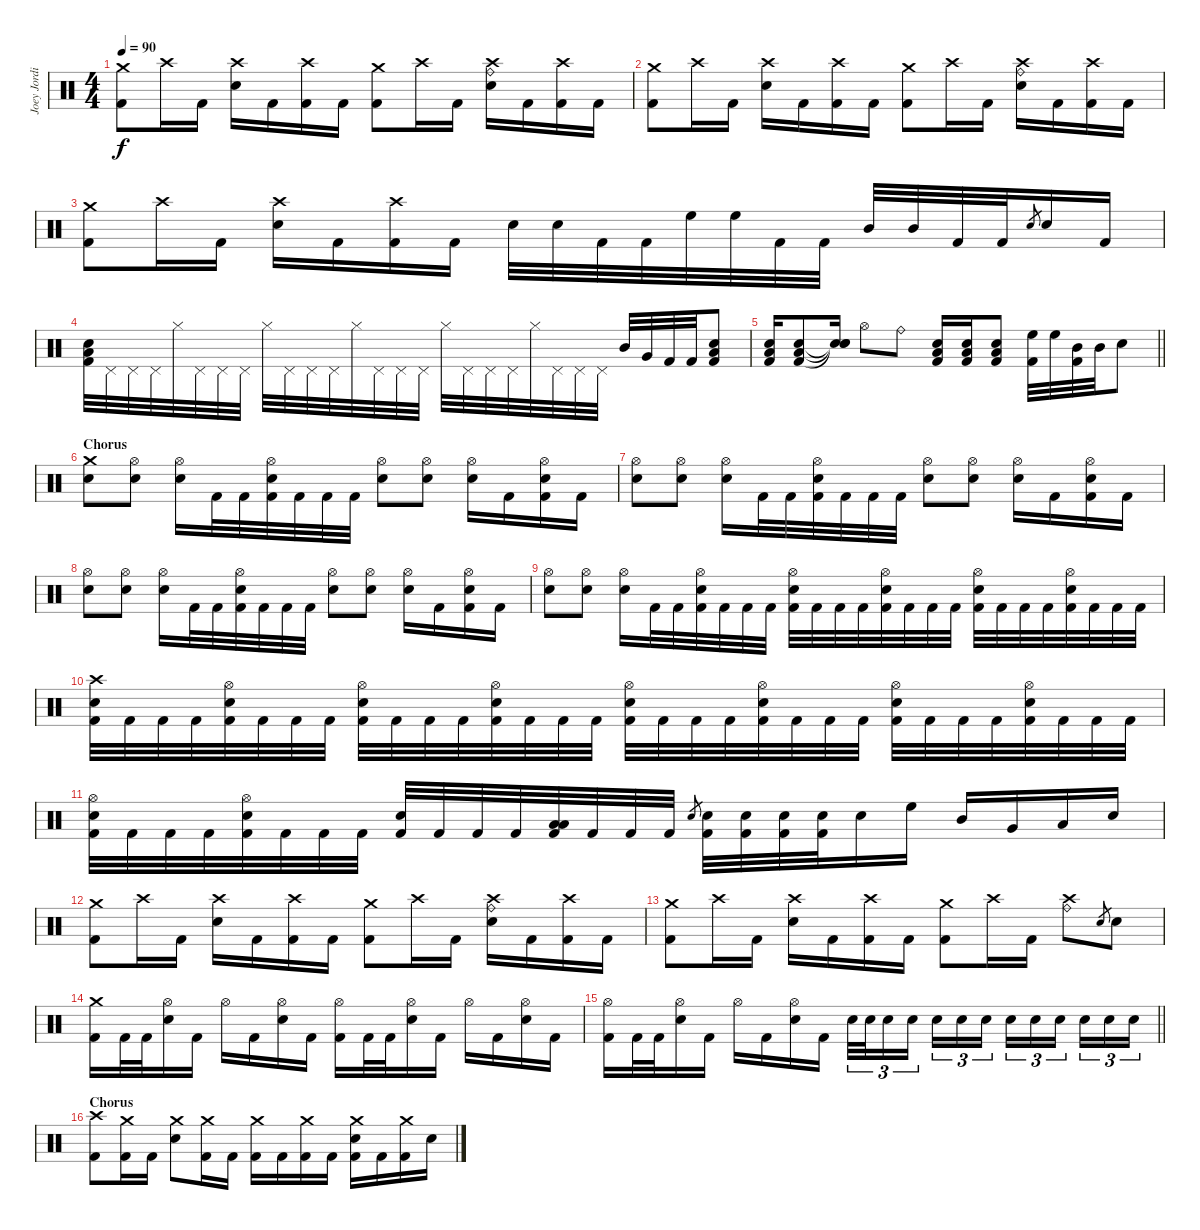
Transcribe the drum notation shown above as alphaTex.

\track ("Joey Jordison" "Joey Jordi") {instrument percussion}
\staff {score}
\articulation defaults
\ts (4 4)
\tempo 90
\clef neutral
\ks c
("Crash medium (hit)" "Kick (hit) 2").8{dy f} "Crash high (hit)".16 "Kick (hit) 2".16 ("Crash high (hit)" "Electric Snare (hit)").16 "Kick (hit) 2".16 ("Crash high (hit)" "Kick (hit) 2").16 "Kick (hit) 2".16 ("Crash medium (hit)" "Kick (hit) 2").8 "Crash high (hit)".16 "Kick (hit) 2".16 ("Crash high (hit)" "Ride (bell)" "Electric Snare (hit)").16 "Kick (hit) 2".16 ("Crash high (hit)" "Kick (hit) 2").16 "Kick (hit) 2".16 |
("Crash medium (hit)" "Kick (hit) 2").8 "Crash high (hit)".16 "Kick (hit) 2".16 ("Crash high (hit)" "Electric Snare (hit)").16 "Kick (hit) 2".16 ("Crash high (hit)" "Kick (hit) 2").16 "Kick (hit) 2".16 ("Crash medium (hit)" "Kick (hit) 2").8 "Crash high (hit)".16 "Kick (hit) 2".16 ("Crash high (hit)" "Ride (bell)" "Electric Snare (hit)").16 "Kick (hit) 2".16 ("Crash high (hit)" "Kick (hit) 2").16 "Kick (hit) 2".16 |
("Crash medium (hit)" "Kick (hit) 2").8 "Crash high (hit)".16 "Kick (hit) 2".16 ("Crash high (hit)" "Electric Snare (hit)").16 "Kick (hit) 2".16 ("Crash high (hit)" "Kick (hit) 2").16 "Kick (hit) 2".16 "Electric Snare (hit)".32 "Electric Snare (hit)".32 "Kick (hit) 2".32 "Kick (hit) 2".32 "High Floor Tom (hit)".32 "High Floor Tom (hit)".32 "Kick (hit) 2".32 "Kick (hit) 2".32 "Mid Tom (hit)".32 "Mid Tom (hit)".32 "Kick (hit) 2".32 "Kick (hit) 2".32 "Electric Snare (hit)".8{gr} "Electric Snare (hit)".16 "Kick (hit) 2".16 |
("Low Floor Tom (hit)" "Electric Snare (hit)" "Kick (hit) 2").32 "Pedal Hi-Hat (hit)".32 "Pedal Hi-Hat (hit)".32 "Pedal Hi-Hat (hit)".32 "Hi-Hat (closed)".32 "Pedal Hi-Hat (hit)".32 "Pedal Hi-Hat (hit)".32 "Pedal Hi-Hat (hit)".32 "Hi-Hat (closed)".32 "Pedal Hi-Hat (hit)".32 "Pedal Hi-Hat (hit)".32 "Pedal Hi-Hat (hit)".32 "Hi-Hat (closed)".32 "Pedal Hi-Hat (hit)".32 "Pedal Hi-Hat (hit)".32 "Pedal Hi-Hat (hit)".32 "Hi-Hat (closed)".32 "Pedal Hi-Hat (hit)".32 "Pedal Hi-Hat (hit)".32 "Pedal Hi-Hat (hit)".32 "Hi-Hat (closed)".32 "Pedal Hi-Hat (hit)".32 "Pedal Hi-Hat (hit)".32 "Pedal Hi-Hat (hit)".32 "Mid Tom (hit)".32 "Very Low Tom (hit)".32 "Kick (hit) 2".32 "Kick (hit) 2".32 ("Low Floor Tom (hit)" "Electric Snare (hit)" "Kick (hit) 2").8 |
\barLineRight lightlight
("Low Floor Tom (hit)" "Electric Snare (hit)" "Kick (hit) 2").16 ("Low Floor Tom (hit)" "Electric Snare (hit)" "Kick (hit) 2").8 ("Snare (hit)"{t} "Snare (hit)"{t} "Snare (hit)"{t}).16 "Hi-Hat (open)".8 "Ride (bell)".8 ("Low Floor Tom (hit)" "Electric Snare (hit)" "Kick (hit) 2").16 ("Low Floor Tom (hit)" "Electric Snare (hit)" "Kick (hit) 2").16 ("Low Floor Tom (hit)" "Electric Snare (hit)" "Kick (hit) 2").8 ("High Floor Tom (hit)" "Kick (hit) 2").32 "High Floor Tom (hit)".32 ("Mid Tom (hit)" "Kick (hit) 2").32 "Mid Tom (hit)".32 "Electric Snare (hit)".8 |
\section ("" "Chorus")
("Crash medium (hit)" "Electric Snare (hit)").8 ("Hi-Hat (open)" "Electric Snare (hit)").8 ("Hi-Hat (open)" "Electric Snare (hit)").16 "Kick (hit) 2".32 "Kick (hit) 2".32 ("Hi-Hat (open)" "Electric Snare (hit)" "Kick (hit) 2").32 "Kick (hit) 2".32 "Kick (hit) 2".32 "Kick (hit) 2".32 ("Hi-Hat (open)" "Electric Snare (hit)").8 ("Hi-Hat (open)" "Electric Snare (hit)").8 ("Hi-Hat (open)" "Electric Snare (hit)").16 "Kick (hit) 2".16 ("Hi-Hat (open)" "Electric Snare (hit)" "Kick (hit) 2").16 "Kick (hit) 2".16 |
("Hi-Hat (open)" "Electric Snare (hit)").8 ("Hi-Hat (open)" "Electric Snare (hit)").8 ("Hi-Hat (open)" "Electric Snare (hit)").16 "Kick (hit) 2".32 "Kick (hit) 2".32 ("Hi-Hat (open)" "Electric Snare (hit)" "Kick (hit) 2").32 "Kick (hit) 2".32 "Kick (hit) 2".32 "Kick (hit) 2".32 ("Hi-Hat (open)" "Electric Snare (hit)").8 ("Hi-Hat (open)" "Electric Snare (hit)").8 ("Hi-Hat (open)" "Electric Snare (hit)").16 "Kick (hit) 2".16 ("Hi-Hat (open)" "Electric Snare (hit)" "Kick (hit) 2").16 "Kick (hit) 2".16 |
("Hi-Hat (open)" "Electric Snare (hit)").8 ("Hi-Hat (open)" "Electric Snare (hit)").8 ("Hi-Hat (open)" "Electric Snare (hit)").16 "Kick (hit) 2".32 "Kick (hit) 2".32 ("Hi-Hat (open)" "Electric Snare (hit)" "Kick (hit) 2").32 "Kick (hit) 2".32 "Kick (hit) 2".32 "Kick (hit) 2".32 ("Hi-Hat (open)" "Electric Snare (hit)").8 ("Hi-Hat (open)" "Electric Snare (hit)").8 ("Hi-Hat (open)" "Electric Snare (hit)").16 "Kick (hit) 2".16 ("Hi-Hat (open)" "Electric Snare (hit)" "Kick (hit) 2").16 "Kick (hit) 2".16 |
("Hi-Hat (open)" "Electric Snare (hit)").8 ("Hi-Hat (open)" "Electric Snare (hit)").8 ("Hi-Hat (open)" "Electric Snare (hit)").16 "Kick (hit) 2".32 "Kick (hit) 2".32 ("Hi-Hat (open)" "Electric Snare (hit)" "Kick (hit) 2").32 "Kick (hit) 2".32 "Kick (hit) 2".32 "Kick (hit) 2".32 ("Hi-Hat (open)" "Electric Snare (hit)" "Kick (hit) 2").32 "Kick (hit) 2".32 "Kick (hit) 2".32 "Kick (hit) 2".32 ("Hi-Hat (open)" "Electric Snare (hit)" "Kick (hit) 2").32 "Kick (hit) 2".32 "Kick (hit) 2".32 "Kick (hit) 2".32 ("Hi-Hat (open)" "Electric Snare (hit)" "Kick (hit) 2").32 "Kick (hit) 2".32 "Kick (hit) 2".32 "Kick (hit) 2".32 ("Hi-Hat (open)" "Electric Snare (hit)" "Kick (hit) 2").32 "Kick (hit) 2".32 "Kick (hit) 2".32 "Kick (hit) 2".32 |
("Crash high (hit)" "Electric Snare (hit)" "Kick (hit) 2").32 "Kick (hit) 2".32 "Kick (hit) 2".32 "Kick (hit) 2".32 ("Hi-Hat (open)" "Electric Snare (hit)" "Kick (hit) 2").32 "Kick (hit) 2".32 "Kick (hit) 2".32 "Kick (hit) 2".32 ("Hi-Hat (open)" "Electric Snare (hit)" "Kick (hit) 2").32 "Kick (hit) 2".32 "Kick (hit) 2".32 "Kick (hit) 2".32 ("Hi-Hat (open)" "Electric Snare (hit)" "Kick (hit) 2").32 "Kick (hit) 2".32 "Kick (hit) 2".32 "Kick (hit) 2".32 ("Hi-Hat (open)" "Electric Snare (hit)" "Kick (hit) 2").32 "Kick (hit) 2".32 "Kick (hit) 2".32 "Kick (hit) 2".32 ("Hi-Hat (open)" "Electric Snare (hit)" "Kick (hit) 2").32 "Kick (hit) 2".32 "Kick (hit) 2".32 "Kick (hit) 2".32 ("Hi-Hat (open)" "Electric Snare (hit)" "Kick (hit) 2").32 "Kick (hit) 2".32 "Kick (hit) 2".32 "Kick (hit) 2".32 ("Hi-Hat (open)" "Electric Snare (hit)" "Kick (hit) 2").32 "Kick (hit) 2".32 "Kick (hit) 2".32 "Kick (hit) 2".32 |
("Hi-Hat (open)" "Electric Snare (hit)" "Kick (hit) 2").32 "Kick (hit) 2".32 "Kick (hit) 2".32 "Kick (hit) 2".32 ("Hi-Hat (open)" "Electric Snare (hit)" "Kick (hit) 2").32 "Kick (hit) 2".32 "Kick (hit) 2".32 "Kick (hit) 2".32 ("Electric Snare (hit)" "Kick (hit) 2").32 "Kick (hit) 2".32 "Kick (hit) 2".32 "Kick (hit) 2".32 ("Low Tom (hit)" "Low Floor Tom (hit)" "Kick (hit) 2").32 "Kick (hit) 2".32 "Kick (hit) 2".32 "Kick (hit) 2".32 "Electric Snare (hit)".8{gr} ("Electric Snare (hit)" "Kick (hit) 2").32 ("Electric Snare (hit)" "Kick (hit) 2").32 ("Electric Snare (hit)" "Kick (hit) 2").32 ("Electric Snare (hit)" "Kick (hit) 2").32 "Electric Snare (hit)".16 "High Floor Tom (hit)".16 "Mid Tom (hit)".16 "Very Low Tom (hit)".16 "Low Floor Tom (hit)".16 "Electric Snare (hit)".16 |
("Crash medium (hit)" "Kick (hit) 2").8 "Crash high (hit)".16 "Kick (hit) 2".16 ("Crash high (hit)" "Electric Snare (hit)").16 "Kick (hit) 2".16 ("Crash high (hit)" "Kick (hit) 2").16 "Kick (hit) 2".16 ("Crash medium (hit)" "Kick (hit) 2").8 "Crash high (hit)".16 "Kick (hit) 2".16 ("Crash high (hit)" "Ride (bell)" "Electric Snare (hit)").16 "Kick (hit) 2".16 ("Crash high (hit)" "Kick (hit) 2").16 "Kick (hit) 2".16 |
("Crash medium (hit)" "Kick (hit) 2").8 "Crash high (hit)".16 "Kick (hit) 2".16 ("Crash high (hit)" "Electric Snare (hit)").16 "Kick (hit) 2".16 ("Crash high (hit)" "Kick (hit) 2").16 "Kick (hit) 2".16 ("Crash medium (hit)" "Kick (hit) 2").8 "Crash high (hit)".16 "Kick (hit) 2".16 ("Crash high (hit)" "Ride (bell)").8 "Electric Snare (hit)".8{gr} "Electric Snare (hit)".8 |
("Crash medium (hit)" "Kick (hit) 2").16 "Kick (hit) 2".32 "Kick (hit) 2".32 ("Hi-Hat (open)" "Electric Snare (hit)").16 "Kick (hit) 2".16 "Hi-Hat (open)".16 "Kick (hit) 2".16 ("Hi-Hat (open)" "Electric Snare (hit)").16 "Kick (hit) 2".16 ("Hi-Hat (open)" "Kick (hit) 2").16 "Kick (hit) 2".32 "Kick (hit) 2".32 ("Hi-Hat (open)" "Electric Snare (hit)").16 "Kick (hit) 2".16 "Hi-Hat (open)".16 "Kick (hit) 2".16 ("Hi-Hat (open)" "Electric Snare (hit)").16 "Kick (hit) 2".16 |
\barLineRight lightlight
("Hi-Hat (open)" "Kick (hit) 2").16 "Kick (hit) 2".32 "Kick (hit) 2".32 ("Hi-Hat (open)" "Electric Snare (hit)").16 "Kick (hit) 2".16 "Hi-Hat (open)".16 "Kick (hit) 2".16 ("Hi-Hat (open)" "Electric Snare (hit)").16 "Kick (hit) 2".16 "Electric Snare (hit)".32{tu (3 2)} "Electric Snare (hit)".32{tu (3 2)} "Electric Snare (hit)".16{tu (3 2)} "Electric Snare (hit)".16{tu (3 2) beam splitsecondary} "Electric Snare (hit)".16{tu (3 2)} "Electric Snare (hit)".16{tu (3 2)} "Electric Snare (hit)".16{tu (3 2)} "Electric Snare (hit)".16{tu (3 2)} "Electric Snare (hit)".16{tu (3 2)} "Electric Snare (hit)".16{tu (3 2) beam splitsecondary} "Electric Snare (hit)".16{tu (3 2)} "Electric Snare (hit)".16{tu (3 2)} "Electric Snare (hit)".16{tu (3 2)} |
\section ("" "Chorus")
("Crash high (hit)" "Kick (hit) 2").8 ("Crash medium (hit)" "Kick (hit) 2").16 "Kick (hit) 2".16 ("Crash medium (hit)" "Electric Snare (hit)").8 ("Crash medium (hit)" "Kick (hit) 2").16 "Kick (hit) 2".16 ("Crash medium (hit)" "Kick (hit) 2").16 "Kick (hit) 2".16 ("Crash medium (hit)" "Kick (hit) 2").16 "Kick (hit) 2".16 ("Crash medium (hit)" "Electric Snare (hit)" "Kick (hit) 2").16 "Kick (hit) 2".16 ("Crash medium (hit)" "Kick (hit) 2").16 "Electric Snare (hit)".16
